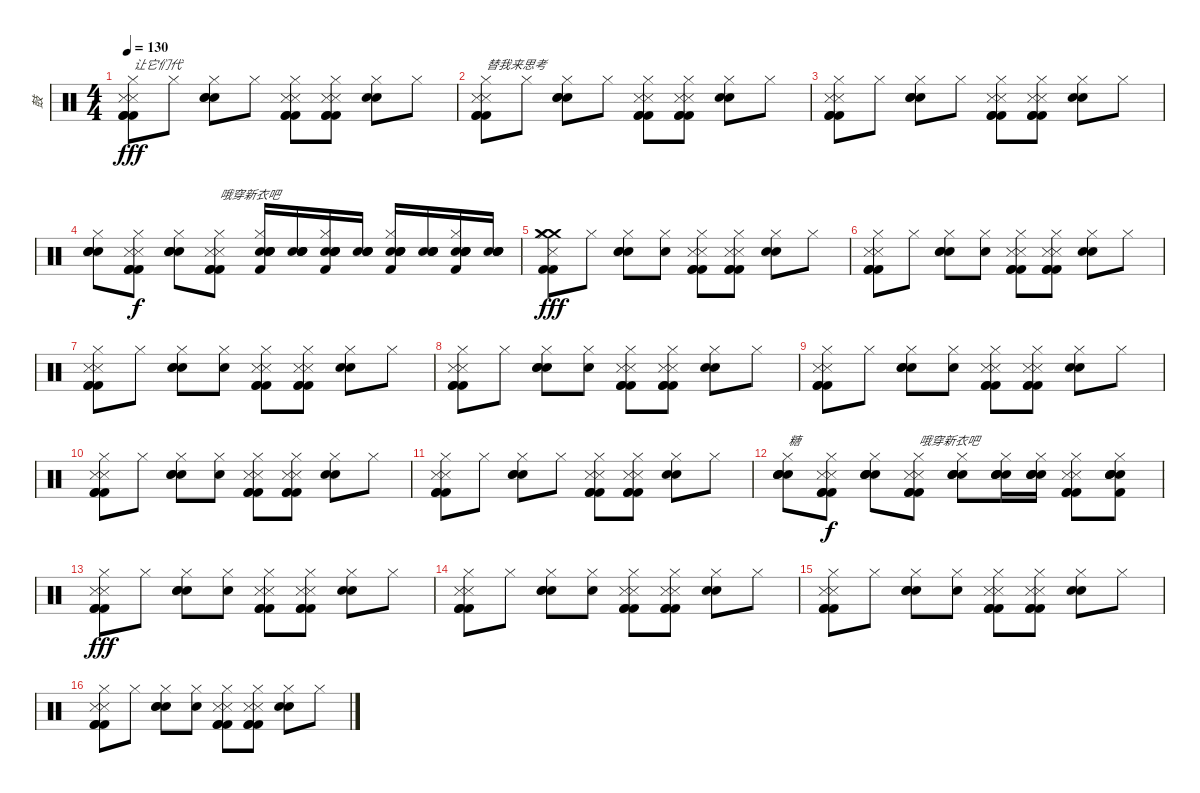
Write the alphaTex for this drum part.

\track ("鼓" "鼓") {instrument percussion}
\staff {score}
\articulation defaults
\ts (4 4)
\tempo 130
\clef neutral
\ks c
("Metronome (hit)" "Metronome (hit)" "Kick (hit) 2" "Kick (hit) 2" "Kick (hit) 2" "Hi-Hat (closed)").8{txt "让它们代" dy fff} "Hi-Hat (closed)".8 ("Electric Snare (hit)" "Electric Snare (hit)" "Electric Snare (hit)" "Hi-Hat (closed)").8 "Hi-Hat (closed)".8 ("Metronome (hit)" "Metronome (hit)" "Kick (hit) 2" "Kick (hit) 2" "Kick (hit) 2" "Hi-Hat (closed)").8 ("Metronome (hit)" "Metronome (hit)" "Kick (hit) 2" "Kick (hit) 2" "Kick (hit) 2" "Hi-Hat (closed)").8 ("Electric Snare (hit)" "Electric Snare (hit)" "Hi-Hat (closed)").8 "Hi-Hat (closed)".8 |
("Metronome (hit)" "Metronome (hit)" "Kick (hit) 2" "Kick (hit) 2" "Kick (hit) 2" "Hi-Hat (closed)").8{txt "替我来思考"} "Hi-Hat (closed)".8 ("Electric Snare (hit)" "Electric Snare (hit)" "Electric Snare (hit)" "Hi-Hat (closed)").8 "Hi-Hat (closed)".8 ("Metronome (hit)" "Metronome (hit)" "Kick (hit) 2" "Kick (hit) 2" "Kick (hit) 2" "Hi-Hat (closed)").8 ("Metronome (hit)" "Metronome (hit)" "Kick (hit) 2" "Kick (hit) 2" "Kick (hit) 2" "Hi-Hat (closed)").8 ("Electric Snare (hit)" "Electric Snare (hit)" "Hi-Hat (closed)").8 "Hi-Hat (closed)".8 |
("Metronome (hit)" "Metronome (hit)" "Kick (hit) 2" "Kick (hit) 2" "Kick (hit) 2" "Hi-Hat (closed)").8 "Hi-Hat (closed)".8 ("Electric Snare (hit)" "Electric Snare (hit)" "Electric Snare (hit)" "Hi-Hat (closed)").8 "Hi-Hat (closed)".8 ("Metronome (hit)" "Metronome (hit)" "Kick (hit) 2" "Kick (hit) 2" "Kick (hit) 2" "Hi-Hat (closed)").8 ("Metronome (hit)" "Metronome (hit)" "Kick (hit) 2" "Kick (hit) 2" "Kick (hit) 2" "Hi-Hat (closed)").8 ("Electric Snare (hit)" "Electric Snare (hit)" "Hi-Hat (closed)").8 "Hi-Hat (closed)".8 |
("Hand Clap (hit)" "Snare (hit) 2" "Snare (hit) 2" "Snare (hit) 2" "Hi-Hat (closed)").8 ("Metronome (hit)" "Metronome (hit)" "Kick (hit) 2" "Kick (hit) 2" "Kick (hit) 2" "Hi-Hat (closed)").8{dy f} ("Hand Clap (hit)" "Snare (hit) 2" "Snare (hit) 2" "Snare (hit) 2" "Hi-Hat (closed)").8 ("Metronome (hit)" "Metronome (hit)" "Kick (hit) 2" "Kick (hit) 2" "Kick (hit) 2" "Hi-Hat (closed)").8{txt "哦穿新衣吧"} ("Hand Clap (hit)" "Snare (hit) 2" "Snare (hit) 2" "Snare (hit) 2" "Kick (hit) 2" "Hi-Hat (closed)").16{volume 7} ("Hand Clap (hit)" "Snare (hit) 2" "Snare (hit) 2" "Snare (hit) 2").16{volume 8} ("Hand Clap (hit)" "Snare (hit) 2" "Snare (hit) 2" "Snare (hit) 2" "Kick (hit) 2" "Hi-Hat (closed)").16{volume 9} ("Hand Clap (hit)" "Snare (hit) 2" "Snare (hit) 2" "Snare (hit) 2").16{volume 10} ("Hand Clap (hit)" "Snare (hit) 2" "Snare (hit) 2" "Snare (hit) 2" "Kick (hit) 2" "Hi-Hat (closed)").16{volume 11} ("Hand Clap (hit)" "Snare (hit) 2" "Snare (hit) 2" "Snare (hit) 2").16{volume 12} ("Hand Clap (hit)" "Snare (hit) 2" "Snare (hit) 2" "Snare (hit) 2" "Kick (hit) 2" "Hi-Hat (closed)").16{volume 13} ("Hand Clap (hit)" "Snare (hit) 2" "Snare (hit) 2" "Snare (hit) 2").16{volume 14} |
("Crash medium (hit)" "Metronome (hit)" "Crash medium (hit)" "Kick (hit) 2" "Kick (hit) 2" "Hi-Hat (closed)").8{dy fff volume 16} "Hi-Hat (closed)".8{volume 11} ("Electric Snare (hit)" "Electric Snare (hit)" "Electric Snare (hit)" "Hi-Hat (closed)").8 ("Hand Clap (hit)" "Hi-Hat (closed)").8 ("Metronome (hit)" "Metronome (hit)" "Kick (hit) 2" "Kick (hit) 2" "Kick (hit) 2" "Hi-Hat (closed)").8 ("Metronome (hit)" "Metronome (hit)" "Kick (hit) 2" "Kick (hit) 2" "Kick (hit) 2" "Hi-Hat (closed)").8 ("Electric Snare (hit)" "Electric Snare (hit)" "Hi-Hat (closed)").8 "Hi-Hat (closed)".8 |
("Metronome (hit)" "Metronome (hit)" "Kick (hit) 2" "Kick (hit) 2" "Kick (hit) 2" "Hi-Hat (closed)").8 "Hi-Hat (closed)".8 ("Electric Snare (hit)" "Electric Snare (hit)" "Electric Snare (hit)" "Hi-Hat (closed)").8 ("Hand Clap (hit)" "Hi-Hat (closed)").8 ("Metronome (hit)" "Metronome (hit)" "Kick (hit) 2" "Kick (hit) 2" "Kick (hit) 2" "Hi-Hat (closed)").8 ("Metronome (hit)" "Metronome (hit)" "Kick (hit) 2" "Kick (hit) 2" "Kick (hit) 2" "Hi-Hat (closed)").8 ("Electric Snare (hit)" "Electric Snare (hit)" "Hi-Hat (closed)").8 "Hi-Hat (closed)".8 |
("Metronome (hit)" "Metronome (hit)" "Kick (hit) 2" "Kick (hit) 2" "Kick (hit) 2" "Hi-Hat (closed)").8 "Hi-Hat (closed)".8 ("Electric Snare (hit)" "Electric Snare (hit)" "Electric Snare (hit)" "Hi-Hat (closed)").8 ("Hand Clap (hit)" "Hi-Hat (closed)").8 ("Metronome (hit)" "Metronome (hit)" "Kick (hit) 2" "Kick (hit) 2" "Kick (hit) 2" "Hi-Hat (closed)").8 ("Metronome (hit)" "Metronome (hit)" "Kick (hit) 2" "Kick (hit) 2" "Kick (hit) 2" "Hi-Hat (closed)").8 ("Electric Snare (hit)" "Electric Snare (hit)" "Hi-Hat (closed)").8 "Hi-Hat (closed)".8 |
("Metronome (hit)" "Metronome (hit)" "Kick (hit) 2" "Kick (hit) 2" "Kick (hit) 2" "Hi-Hat (closed)").8 "Hi-Hat (closed)".8 ("Electric Snare (hit)" "Electric Snare (hit)" "Electric Snare (hit)" "Hi-Hat (closed)").8 ("Hand Clap (hit)" "Hi-Hat (closed)").8 ("Metronome (hit)" "Metronome (hit)" "Kick (hit) 2" "Kick (hit) 2" "Kick (hit) 2" "Hi-Hat (closed)").8 ("Metronome (hit)" "Metronome (hit)" "Kick (hit) 2" "Kick (hit) 2" "Kick (hit) 2" "Hi-Hat (closed)").8 ("Electric Snare (hit)" "Electric Snare (hit)" "Hi-Hat (closed)").8 "Hi-Hat (closed)".8 |
("Metronome (hit)" "Metronome (hit)" "Kick (hit) 2" "Kick (hit) 2" "Kick (hit) 2" "Hi-Hat (closed)").8 "Hi-Hat (closed)".8 ("Electric Snare (hit)" "Electric Snare (hit)" "Electric Snare (hit)" "Hi-Hat (closed)").8 ("Hand Clap (hit)" "Hi-Hat (closed)").8 ("Metronome (hit)" "Metronome (hit)" "Kick (hit) 2" "Kick (hit) 2" "Kick (hit) 2" "Hi-Hat (closed)").8 ("Metronome (hit)" "Metronome (hit)" "Kick (hit) 2" "Kick (hit) 2" "Kick (hit) 2" "Hi-Hat (closed)").8 ("Electric Snare (hit)" "Electric Snare (hit)" "Hi-Hat (closed)").8 "Hi-Hat (closed)".8 |
("Metronome (hit)" "Metronome (hit)" "Kick (hit) 2" "Kick (hit) 2" "Kick (hit) 2" "Hi-Hat (closed)").8 "Hi-Hat (closed)".8 ("Electric Snare (hit)" "Electric Snare (hit)" "Electric Snare (hit)" "Hi-Hat (closed)").8 ("Hand Clap (hit)" "Hi-Hat (closed)").8 ("Metronome (hit)" "Metronome (hit)" "Kick (hit) 2" "Kick (hit) 2" "Kick (hit) 2" "Hi-Hat (closed)").8 ("Metronome (hit)" "Metronome (hit)" "Kick (hit) 2" "Kick (hit) 2" "Kick (hit) 2" "Hi-Hat (closed)").8 ("Electric Snare (hit)" "Electric Snare (hit)" "Hi-Hat (closed)").8 "Hi-Hat (closed)".8 |
("Metronome (hit)" "Metronome (hit)" "Kick (hit) 2" "Kick (hit) 2" "Kick (hit) 2" "Hi-Hat (closed)").8 "Hi-Hat (closed)".8 ("Electric Snare (hit)" "Electric Snare (hit)" "Electric Snare (hit)" "Hi-Hat (closed)").8 "Hi-Hat (closed)".8 ("Metronome (hit)" "Metronome (hit)" "Kick (hit) 2" "Kick (hit) 2" "Kick (hit) 2" "Hi-Hat (closed)").8 ("Metronome (hit)" "Metronome (hit)" "Kick (hit) 2" "Kick (hit) 2" "Kick (hit) 2" "Hi-Hat (closed)").8 ("Electric Snare (hit)" "Electric Snare (hit)" "Hi-Hat (closed)").8 "Hi-Hat (closed)".8 |
("Hand Clap (hit)" "Snare (hit) 2" "Snare (hit) 2" "Snare (hit) 2" "Hi-Hat (closed)").8{txt "糖"} ("Metronome (hit)" "Metronome (hit)" "Kick (hit) 2" "Kick (hit) 2" "Kick (hit) 2" "Hi-Hat (closed)").8{dy f} ("Hand Clap (hit)" "Snare (hit) 2" "Snare (hit) 2" "Snare (hit) 2" "Hi-Hat (closed)").8 ("Metronome (hit)" "Metronome (hit)" "Kick (hit) 2" "Kick (hit) 2" "Kick (hit) 2" "Hi-Hat (closed)").8{txt "哦穿新衣吧"} ("Hand Clap (hit)" "Snare (hit) 2" "Snare (hit) 2" "Snare (hit) 2" "Hi-Hat (closed)").8 ("Hand Clap (hit)" "Snare (hit) 2" "Snare (hit) 2" "Snare (hit) 2" "Hi-Hat (closed)").16 ("Hand Clap (hit)" "Snare (hit) 2" "Snare (hit) 2" "Snare (hit) 2" "Hi-Hat (closed)").16 ("Metronome (hit)" "Metronome (hit)" "Kick (hit) 2" "Kick (hit) 2" "Kick (hit) 2" "Hi-Hat (closed)").8 ("Hand Clap (hit)" "Snare (hit) 2" "Snare (hit) 2" "Snare (hit) 2" "Kick (hit) 2" "Hi-Hat (closed)").8 |
("Metronome (hit)" "Metronome (hit)" "Kick (hit) 2" "Kick (hit) 2" "Kick (hit) 2" "Hi-Hat (closed)").8{dy fff} "Hi-Hat (closed)".8 ("Electric Snare (hit)" "Electric Snare (hit)" "Electric Snare (hit)" "Hi-Hat (closed)").8 ("Hand Clap (hit)" "Hi-Hat (closed)").8 ("Metronome (hit)" "Metronome (hit)" "Kick (hit) 2" "Kick (hit) 2" "Kick (hit) 2" "Hi-Hat (closed)").8 ("Metronome (hit)" "Metronome (hit)" "Kick (hit) 2" "Kick (hit) 2" "Kick (hit) 2" "Hi-Hat (closed)").8 ("Electric Snare (hit)" "Electric Snare (hit)" "Hi-Hat (closed)").8 "Hi-Hat (closed)".8 |
("Metronome (hit)" "Metronome (hit)" "Kick (hit) 2" "Kick (hit) 2" "Kick (hit) 2" "Hi-Hat (closed)").8 "Hi-Hat (closed)".8 ("Electric Snare (hit)" "Electric Snare (hit)" "Electric Snare (hit)" "Hi-Hat (closed)").8 ("Hand Clap (hit)" "Hi-Hat (closed)").8 ("Metronome (hit)" "Metronome (hit)" "Kick (hit) 2" "Kick (hit) 2" "Kick (hit) 2" "Hi-Hat (closed)").8 ("Metronome (hit)" "Metronome (hit)" "Kick (hit) 2" "Kick (hit) 2" "Kick (hit) 2" "Hi-Hat (closed)").8 ("Electric Snare (hit)" "Electric Snare (hit)" "Hi-Hat (closed)").8 "Hi-Hat (closed)".8 |
("Metronome (hit)" "Metronome (hit)" "Kick (hit) 2" "Kick (hit) 2" "Kick (hit) 2" "Hi-Hat (closed)").8 "Hi-Hat (closed)".8 ("Electric Snare (hit)" "Electric Snare (hit)" "Electric Snare (hit)" "Hi-Hat (closed)").8 ("Hand Clap (hit)" "Hi-Hat (closed)").8 ("Metronome (hit)" "Metronome (hit)" "Kick (hit) 2" "Kick (hit) 2" "Kick (hit) 2" "Hi-Hat (closed)").8 ("Metronome (hit)" "Metronome (hit)" "Kick (hit) 2" "Kick (hit) 2" "Kick (hit) 2" "Hi-Hat (closed)").8 ("Electric Snare (hit)" "Electric Snare (hit)" "Hi-Hat (closed)").8 "Hi-Hat (closed)".8 |
("Metronome (hit)" "Metronome (hit)" "Kick (hit) 2" "Kick (hit) 2" "Kick (hit) 2" "Hi-Hat (closed)").8 "Hi-Hat (closed)".8 ("Electric Snare (hit)" "Electric Snare (hit)" "Electric Snare (hit)" "Hi-Hat (closed)").8 ("Hand Clap (hit)" "Hi-Hat (closed)").8 ("Metronome (hit)" "Metronome (hit)" "Kick (hit) 2" "Kick (hit) 2" "Kick (hit) 2" "Hi-Hat (closed)").8 ("Metronome (hit)" "Metronome (hit)" "Kick (hit) 2" "Kick (hit) 2" "Kick (hit) 2" "Hi-Hat (closed)").8 ("Electric Snare (hit)" "Electric Snare (hit)" "Hi-Hat (closed)").8 "Hi-Hat (closed)".8
